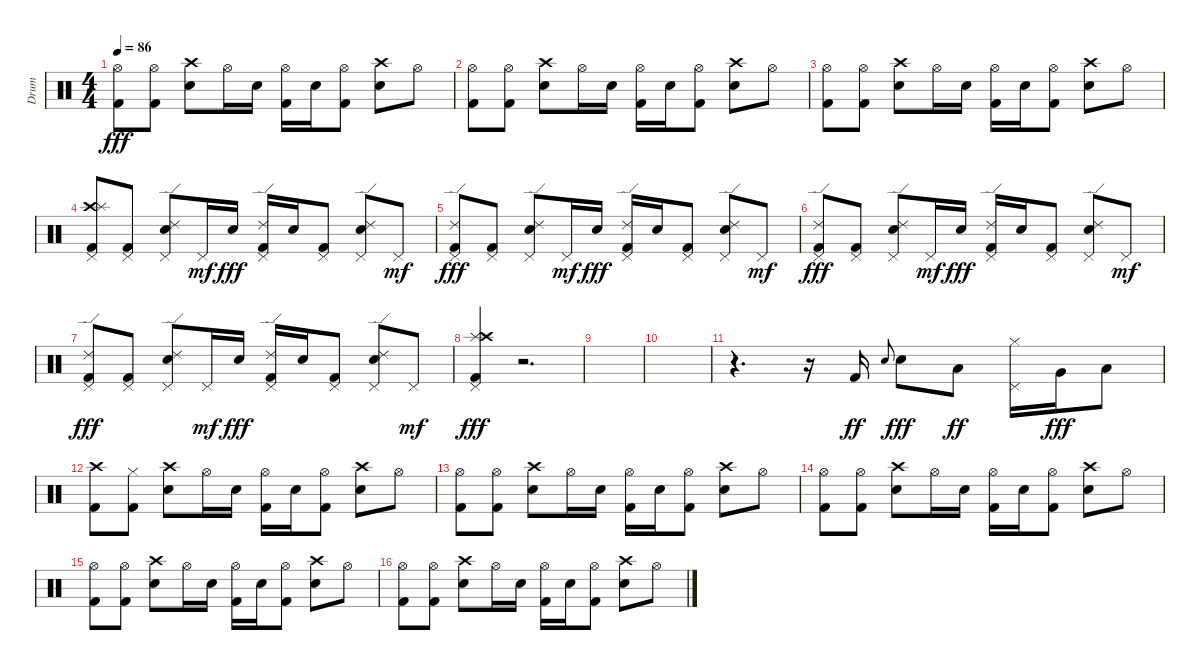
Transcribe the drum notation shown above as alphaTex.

\track ("Drum" "Drum") {instrument percussion}
\staff {score}
\articulation defaults
\ts (4 4)
\tempo 86
\clef neutral
\ks c
("Hi-Hat (open)" "Kick (hit) 2").8{dy fff} ("Hi-Hat (open)" "Kick (hit) 2").8 ("Crash high (hit)" "Electric Snare (hit)").8 "Hi-Hat (open)".16 "Electric Snare (hit)".16 ("Hi-Hat (open)" "Kick (hit) 2").16 "Electric Snare (hit)".16 ("Hi-Hat (open)" "Kick (hit) 2").8 ("Crash high (hit)" "Electric Snare (hit)").8 "Hi-Hat (open)".8 |
("Hi-Hat (open)" "Kick (hit) 2").8 ("Hi-Hat (open)" "Kick (hit) 2").8 ("Crash high (hit)" "Electric Snare (hit)").8 "Hi-Hat (open)".16 "Electric Snare (hit)".16 ("Hi-Hat (open)" "Kick (hit) 2").16 "Electric Snare (hit)".16 ("Hi-Hat (open)" "Kick (hit) 2").8 ("Crash high (hit)" "Electric Snare (hit)").8 "Hi-Hat (open)".8 |
("Hi-Hat (open)" "Kick (hit) 2").8 ("Hi-Hat (open)" "Kick (hit) 2").8 ("Crash high (hit)" "Electric Snare (hit)").8 "Hi-Hat (open)".16 "Electric Snare (hit)".16 ("Hi-Hat (open)" "Kick (hit) 2").16 "Electric Snare (hit)".16 ("Hi-Hat (open)" "Kick (hit) 2").8 ("Crash high (hit)" "Electric Snare (hit)").8 "Hi-Hat (open)".8 |
("Crash high (hit)" "Splash (hit)" "Pedal Hi-Hat (hit)" "Kick (hit) 2").8 ("Pedal Hi-Hat (hit)" "Kick (hit) 2").8 ("Ride (edge) 2" "Pedal Hi-Hat (hit)" "Electric Snare (hit)").8 "Pedal Hi-Hat (hit)".16{dy mf} "Electric Snare (hit)".16{dy fff} ("Ride (edge) 2" "Pedal Hi-Hat (hit)" "Kick (hit) 2").16 "Electric Snare (hit)".16 ("Pedal Hi-Hat (hit)" "Kick (hit) 2").8 ("Ride (edge) 2" "Pedal Hi-Hat (hit)" "Electric Snare (hit)").8 "Pedal Hi-Hat (hit)".8{dy mf} |
("Ride (edge) 2" "Pedal Hi-Hat (hit)" "Kick (hit) 2").8{dy fff} ("Pedal Hi-Hat (hit)" "Kick (hit) 2").8 ("Ride (edge) 2" "Pedal Hi-Hat (hit)" "Electric Snare (hit)").8 "Pedal Hi-Hat (hit)".16{dy mf} "Electric Snare (hit)".16{dy fff} ("Ride (edge) 2" "Pedal Hi-Hat (hit)" "Kick (hit) 2").16 "Electric Snare (hit)".16 ("Pedal Hi-Hat (hit)" "Kick (hit) 2").8 ("Ride (edge) 2" "Pedal Hi-Hat (hit)" "Electric Snare (hit)").8 "Pedal Hi-Hat (hit)".8{dy mf} |
("Ride (edge) 2" "Pedal Hi-Hat (hit)" "Kick (hit) 2").8{dy fff} ("Pedal Hi-Hat (hit)" "Kick (hit) 2").8 ("Ride (edge) 2" "Pedal Hi-Hat (hit)" "Electric Snare (hit)").8 "Pedal Hi-Hat (hit)".16{dy mf} "Electric Snare (hit)".16{dy fff} ("Ride (edge) 2" "Pedal Hi-Hat (hit)" "Kick (hit) 2").16 "Electric Snare (hit)".16 ("Pedal Hi-Hat (hit)" "Kick (hit) 2").8 ("Ride (edge) 2" "Pedal Hi-Hat (hit)" "Electric Snare (hit)").8 "Pedal Hi-Hat (hit)".8{dy mf} |
("Ride (edge) 2" "Pedal Hi-Hat (hit)" "Kick (hit) 2").8{dy fff} ("Pedal Hi-Hat (hit)" "Kick (hit) 2").8 ("Ride (edge) 2" "Pedal Hi-Hat (hit)" "Electric Snare (hit)").8 "Pedal Hi-Hat (hit)".16{dy mf} "Electric Snare (hit)".16{dy fff} ("Ride (edge) 2" "Pedal Hi-Hat (hit)" "Kick (hit) 2").16 "Electric Snare (hit)".16 ("Pedal Hi-Hat (hit)" "Kick (hit) 2").8 ("Ride (edge) 2" "Pedal Hi-Hat (hit)" "Electric Snare (hit)").8 "Pedal Hi-Hat (hit)".8{dy mf} |
("Splash (hit)" "Crash high (hit)" "Pedal Hi-Hat (hit)" "Kick (hit) 2").4{dy fff} r.2{d} |
|
|
r.4{d} r.16 "Kick (hit) 2".16{dy ff} "Electric Snare (hit)".8{gr onbeat} "Electric Snare (hit)".8{dy fff} "Low Tom (hit)".8{dy ff} ("Hi-Hat (closed)" "Pedal Hi-Hat (hit)").16 "Very Low Tom (hit)".16{dy fff} "Low Floor Tom (hit)".8 |
("Crash high (hit)" "Kick (hit) 2").8 ("Hi-Hat (closed)" "Kick (hit) 2").8 ("Crash high (hit)" "Electric Snare (hit)").8 "Hi-Hat (open)".16 "Electric Snare (hit)".16 ("Hi-Hat (open)" "Kick (hit) 2").16 "Electric Snare (hit)".16 ("Hi-Hat (open)" "Kick (hit) 2").8 ("Crash high (hit)" "Electric Snare (hit)").8 "Hi-Hat (open)".8 |
("Hi-Hat (open)" "Kick (hit) 2").8 ("Hi-Hat (open)" "Kick (hit) 2").8 ("Crash high (hit)" "Electric Snare (hit)").8 "Hi-Hat (open)".16 "Electric Snare (hit)".16 ("Hi-Hat (open)" "Kick (hit) 2").16 "Electric Snare (hit)".16 ("Hi-Hat (open)" "Kick (hit) 2").8 ("Crash high (hit)" "Electric Snare (hit)").8 "Hi-Hat (open)".8 |
("Hi-Hat (open)" "Kick (hit) 2").8 ("Hi-Hat (open)" "Kick (hit) 2").8 ("Crash high (hit)" "Electric Snare (hit)").8 "Hi-Hat (open)".16 "Electric Snare (hit)".16 ("Hi-Hat (open)" "Kick (hit) 2").16 "Electric Snare (hit)".16 ("Hi-Hat (open)" "Kick (hit) 2").8 ("Crash high (hit)" "Electric Snare (hit)").8 "Hi-Hat (open)".8 |
("Hi-Hat (open)" "Kick (hit) 2").8 ("Hi-Hat (open)" "Kick (hit) 2").8 ("Crash high (hit)" "Electric Snare (hit)").8 "Hi-Hat (open)".16 "Electric Snare (hit)".16 ("Hi-Hat (open)" "Kick (hit) 2").16 "Electric Snare (hit)".16 ("Hi-Hat (open)" "Kick (hit) 2").8 ("Crash high (hit)" "Electric Snare (hit)").8 "Hi-Hat (open)".8 |
("Hi-Hat (open)" "Kick (hit) 2").8 ("Hi-Hat (open)" "Kick (hit) 2").8 ("Crash high (hit)" "Electric Snare (hit)").8 "Hi-Hat (open)".16 "Electric Snare (hit)".16 ("Hi-Hat (open)" "Kick (hit) 2").16 "Electric Snare (hit)".16 ("Hi-Hat (open)" "Kick (hit) 2").8 ("Crash high (hit)" "Electric Snare (hit)").8 "Hi-Hat (open)".8
